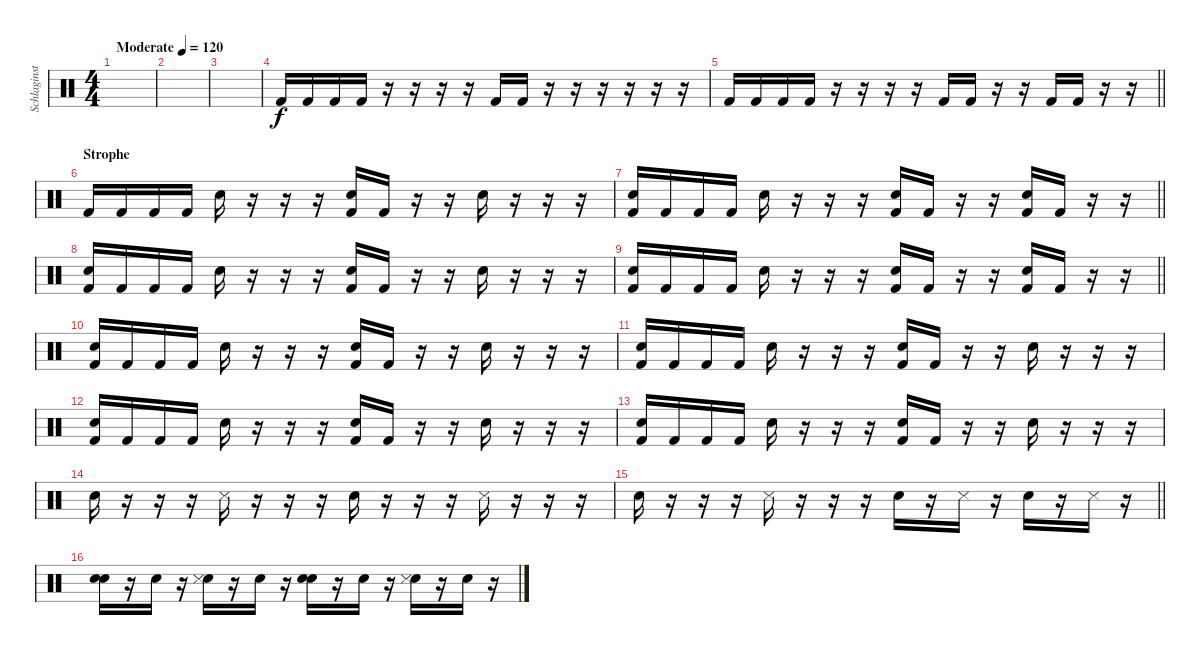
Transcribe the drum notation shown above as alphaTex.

\track ("Schlaginstrumente - Auswahl" "Schlaginst") {instrument percussion}
\staff {score}
\articulation defaults
\ts (4 4)
\tempo (120 "Moderate")
\clef neutral
\ks c
|
|
|
"Kick (hit) 2".16 "Kick (hit) 2".16 "Kick (hit) 2".16 "Kick (hit) 2".16 r.16 r.16 r.16 r.16 "Kick (hit) 2".16 "Kick (hit) 2".16 r.16 r.16 r.16 r.16 r.16 r.16 |
\barLineRight lightlight "Kick (hit) 2".16 "Kick (hit) 2".16 "Kick (hit) 2".16 "Kick (hit) 2".16
r.16 r.16 r.16 r.16 "Kick (hit) 2".16 "Kick (hit) 2".16 r.16 r.16 "Kick (hit) 2".16 "Kick (hit) 2".16 r.16 r.16 |
\section ("" "Strophe")
"Kick (hit) 2".16 "Kick (hit) 2".16 "Kick (hit) 2".16 "Kick (hit) 2".16 "Snare (hit) 2".16 r.16 r.16 r.16 ("Snare (hit) 2" "Kick (hit) 2").16 "Kick (hit) 2".16 r.16 r.16 "Snare (hit) 2".16 r.16 r.16 r.16 |
\barLineRight lightlight
("Snare (hit) 2" "Kick (hit) 2").16 "Kick (hit) 2".16 "Kick (hit) 2".16 "Kick (hit) 2".16 "Snare (hit) 2".16 r.16 r.16 r.16 ("Snare (hit) 2" "Kick (hit) 2").16 "Kick (hit) 2".16 r.16 r.16 ("Snare (hit) 2" "Kick (hit) 2").16 "Kick (hit) 2".16 r.16 r.16 |
("Snare (hit) 2" "Kick (hit) 2").16 "Kick (hit) 2".16 "Kick (hit) 2".16 "Kick (hit) 2".16 "Snare (hit) 2".16 r.16 r.16 r.16 ("Snare (hit) 2" "Kick (hit) 2").16 "Kick (hit) 2".16 r.16 r.16 "Snare (hit) 2".16 r.16 r.16 r.16 |
\barLineRight lightlight
("Snare (hit) 2" "Kick (hit) 2").16 "Kick (hit) 2".16 "Kick (hit) 2".16 "Kick (hit) 2".16 "Snare (hit) 2".16 r.16 r.16 r.16 ("Snare (hit) 2" "Kick (hit) 2").16 "Kick (hit) 2".16 r.16 r.16 ("Snare (hit) 2" "Kick (hit) 2").16 "Kick (hit) 2".16 r.16 r.16 |
("Snare (hit) 2" "Kick (hit) 2").16 "Kick (hit) 2".16 "Kick (hit) 2".16 "Kick (hit) 2".16 "Snare (hit) 2".16 r.16 r.16 r.16 ("Snare (hit) 2" "Kick (hit) 2").16 "Kick (hit) 2".16 r.16 r.16 "Snare (hit) 2".16 r.16 r.16 r.16 |
("Snare (hit) 2" "Kick (hit) 2").16 "Kick (hit) 2".16 "Kick (hit) 2".16 "Kick (hit) 2".16 "Snare (hit) 2".16 r.16 r.16 r.16 ("Snare (hit) 2" "Kick (hit) 2").16 "Kick (hit) 2".16 r.16 r.16 "Snare (hit) 2".16 r.16 r.16 r.16 |
("Snare (hit) 2" "Kick (hit) 2").16 "Kick (hit) 2".16 "Kick (hit) 2".16 "Kick (hit) 2".16 "Snare (hit) 2".16 r.16 r.16 r.16 ("Snare (hit) 2" "Kick (hit) 2").16 "Kick (hit) 2".16 r.16 r.16 "Snare (hit) 2".16 r.16 r.16 r.16 |
("Snare (hit) 2" "Kick (hit) 2").16 "Kick (hit) 2".16 "Kick (hit) 2".16 "Kick (hit) 2".16 "Snare (hit) 2".16 r.16 r.16 r.16 ("Snare (hit) 2" "Kick (hit) 2").16 "Kick (hit) 2".16 r.16 r.16 "Snare (hit) 2".16 r.16 r.16 r.16 |
"Snare (hit) 2".16 r.16 r.16 r.16 "Snare (side stick) 3".16 r.16 r.16 r.16 "Snare (hit) 2".16 r.16 r.16 r.16 "Snare (side stick) 3".16 r.16 r.16 r.16 |
\barLineRight lightlight "Snare (hit) 2".16
r.16 r.16 r.16 "Snare (side stick) 3".16 r.16 r.16 r.16 "Snare (hit) 2".16 r.16 "Snare (side stick) 3".16 r.16 "Snare (hit) 2".16 r.16 "Snare (side stick) 3".16 r.16 |
("Snare (hit) 2" "Snare (hit) 2").16 r.16 "Snare (hit) 2".16 r.16 ("Snare (hit) 2" "Snare (side stick) 3").16 r.16 "Snare (hit) 2".16 r.16 ("Snare (hit) 2" "Snare (hit) 2").16 r.16 "Snare (hit) 2".16 r.16 ("Snare (hit) 2" "Snare (side stick) 3").16 r.16 "Snare (hit) 2".16 r.16
